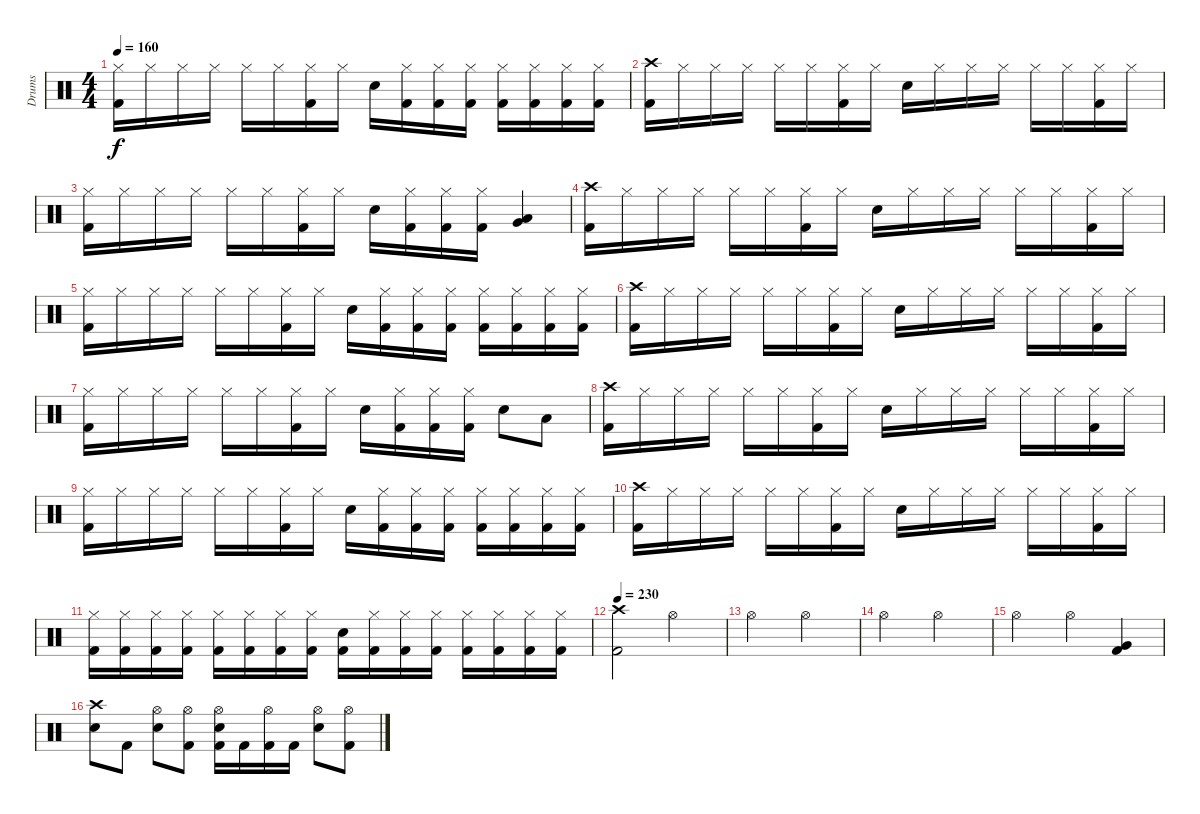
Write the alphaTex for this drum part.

\track ("Drums" "Drums") {instrument percussion}
\staff {score}
\articulation defaults
\ts (4 4)
\tempo 160
\clef neutral
\ks c
("Hi-Hat (closed)" "Kick (hit) 2").16{dy f} "Hi-Hat (closed)".16 "Hi-Hat (closed)".16 "Hi-Hat (closed)".16 "Hi-Hat (closed)".16 "Hi-Hat (closed)".16 ("Hi-Hat (closed)" "Kick (hit) 2").16 "Hi-Hat (closed)".16 "Electric Snare (hit)".16 ("Hi-Hat (closed)" "Kick (hit) 2").16 ("Hi-Hat (closed)" "Kick (hit) 2").16 ("Hi-Hat (closed)" "Kick (hit) 2").16 ("Hi-Hat (closed)" "Kick (hit) 2").16 ("Hi-Hat (closed)" "Kick (hit) 2").16 ("Hi-Hat (closed)" "Kick (hit) 2").16 ("Hi-Hat (closed)" "Kick (hit) 2").16 |
("Crash high (hit)" "Kick (hit) 2").16 "Hi-Hat (closed)".16 "Hi-Hat (closed)".16 "Hi-Hat (closed)".16 "Hi-Hat (closed)".16 "Hi-Hat (closed)".16 ("Hi-Hat (closed)" "Kick (hit) 2").16 "Hi-Hat (closed)".16 "Electric Snare (hit)".16 "Hi-Hat (closed)".16 "Hi-Hat (closed)".16 "Hi-Hat (closed)".16 "Hi-Hat (closed)".16 "Hi-Hat (closed)".16 ("Hi-Hat (closed)" "Kick (hit) 2").16 "Hi-Hat (closed)".16 |
("Hi-Hat (closed)" "Kick (hit) 2").16 "Hi-Hat (closed)".16 "Hi-Hat (closed)".16 "Hi-Hat (closed)".16 "Hi-Hat (closed)".16 "Hi-Hat (closed)".16 ("Hi-Hat (closed)" "Kick (hit) 2").16 "Hi-Hat (closed)".16 "Electric Snare (hit)".16 ("Hi-Hat (closed)" "Kick (hit) 2").16 ("Hi-Hat (closed)" "Kick (hit) 2").16 ("Hi-Hat (closed)" "Kick (hit) 2").16 ("Low Tom (hit)" "Very Low Tom (hit)").4 |
("Crash high (hit)" "Kick (hit) 2").16 "Hi-Hat (closed)".16 "Hi-Hat (closed)".16 "Hi-Hat (closed)".16 "Hi-Hat (closed)".16 "Hi-Hat (closed)".16 ("Hi-Hat (closed)" "Kick (hit) 2").16 "Hi-Hat (closed)".16 "Electric Snare (hit)".16 "Hi-Hat (closed)".16 "Hi-Hat (closed)".16 "Hi-Hat (closed)".16 "Hi-Hat (closed)".16 "Hi-Hat (closed)".16 ("Hi-Hat (closed)" "Kick (hit) 2").16 "Hi-Hat (closed)".16 |
("Hi-Hat (closed)" "Kick (hit) 2").16 "Hi-Hat (closed)".16 "Hi-Hat (closed)".16 "Hi-Hat (closed)".16 "Hi-Hat (closed)".16 "Hi-Hat (closed)".16 ("Hi-Hat (closed)" "Kick (hit) 2").16 "Hi-Hat (closed)".16 "Electric Snare (hit)".16 ("Hi-Hat (closed)" "Kick (hit) 2").16 ("Hi-Hat (closed)" "Kick (hit) 2").16 ("Hi-Hat (closed)" "Kick (hit) 2").16 ("Hi-Hat (closed)" "Kick (hit) 2").16 ("Hi-Hat (closed)" "Kick (hit) 2").16 ("Hi-Hat (closed)" "Kick (hit) 2").16 ("Hi-Hat (closed)" "Kick (hit) 2").16 |
("Crash high (hit)" "Kick (hit) 2").16 "Hi-Hat (closed)".16 "Hi-Hat (closed)".16 "Hi-Hat (closed)".16 "Hi-Hat (closed)".16 "Hi-Hat (closed)".16 ("Hi-Hat (closed)" "Kick (hit) 2").16 "Hi-Hat (closed)".16 "Electric Snare (hit)".16 "Hi-Hat (closed)".16 "Hi-Hat (closed)".16 "Hi-Hat (closed)".16 "Hi-Hat (closed)".16 "Hi-Hat (closed)".16 ("Hi-Hat (closed)" "Kick (hit) 2").16 "Hi-Hat (closed)".16 |
("Hi-Hat (closed)" "Kick (hit) 2").16 "Hi-Hat (closed)".16 "Hi-Hat (closed)".16 "Hi-Hat (closed)".16 "Hi-Hat (closed)".16 "Hi-Hat (closed)".16 ("Hi-Hat (closed)" "Kick (hit) 2").16 "Hi-Hat (closed)".16 "Electric Snare (hit)".16 ("Hi-Hat (closed)" "Kick (hit) 2").16 ("Hi-Hat (closed)" "Kick (hit) 2").16 ("Hi-Hat (closed)" "Kick (hit) 2").16 "Electric Snare (hit)".8 "Low Tom (hit)".8 |
("Crash high (hit)" "Kick (hit) 2").16 "Hi-Hat (closed)".16 "Hi-Hat (closed)".16 "Hi-Hat (closed)".16 "Hi-Hat (closed)".16 "Hi-Hat (closed)".16 ("Hi-Hat (closed)" "Kick (hit) 2").16 "Hi-Hat (closed)".16 "Electric Snare (hit)".16 "Hi-Hat (closed)".16 "Hi-Hat (closed)".16 "Hi-Hat (closed)".16 "Hi-Hat (closed)".16 "Hi-Hat (closed)".16 ("Hi-Hat (closed)" "Kick (hit) 2").16 "Hi-Hat (closed)".16 |
("Hi-Hat (closed)" "Kick (hit) 2").16 "Hi-Hat (closed)".16 "Hi-Hat (closed)".16 "Hi-Hat (closed)".16 "Hi-Hat (closed)".16 "Hi-Hat (closed)".16 ("Hi-Hat (closed)" "Kick (hit) 2").16 "Hi-Hat (closed)".16 "Electric Snare (hit)".16 ("Hi-Hat (closed)" "Kick (hit) 2").16 ("Hi-Hat (closed)" "Kick (hit) 2").16 ("Hi-Hat (closed)" "Kick (hit) 2").16 ("Hi-Hat (closed)" "Kick (hit) 2").16 ("Hi-Hat (closed)" "Kick (hit) 2").16 ("Hi-Hat (closed)" "Kick (hit) 2").16 ("Hi-Hat (closed)" "Kick (hit) 2").16 |
("Crash high (hit)" "Kick (hit) 2").16 "Hi-Hat (closed)".16 "Hi-Hat (closed)".16 "Hi-Hat (closed)".16 "Hi-Hat (closed)".16 "Hi-Hat (closed)".16 ("Hi-Hat (closed)" "Kick (hit) 2").16 "Hi-Hat (closed)".16 "Electric Snare (hit)".16 "Hi-Hat (closed)".16 "Hi-Hat (closed)".16 "Hi-Hat (closed)".16 "Hi-Hat (closed)".16 "Hi-Hat (closed)".16 ("Hi-Hat (closed)" "Kick (hit) 2").16 "Hi-Hat (closed)".16 |
("Hi-Hat (closed)" "Kick (hit) 2").16 ("Hi-Hat (closed)" "Kick (hit) 2").16 ("Hi-Hat (closed)" "Kick (hit) 2").16 ("Hi-Hat (closed)" "Kick (hit) 2").16 ("Hi-Hat (closed)" "Kick (hit) 2").16 ("Hi-Hat (closed)" "Kick (hit) 2").16 ("Hi-Hat (closed)" "Kick (hit) 2").16 ("Hi-Hat (closed)" "Kick (hit) 2").16 ("Electric Snare (hit)" "Kick (hit) 2").16 ("Hi-Hat (closed)" "Kick (hit) 2").16 ("Hi-Hat (closed)" "Kick (hit) 2").16 ("Hi-Hat (closed)" "Kick (hit) 2").16 ("Hi-Hat (closed)" "Kick (hit) 2").16 ("Hi-Hat (closed)" "Kick (hit) 2").16 ("Hi-Hat (closed)" "Kick (hit) 2").16 ("Hi-Hat (closed)" "Kick (hit) 2").16 |
\tempo 230
("Crash high (hit)" "Kick (hit) 2").2 "Hi-Hat (open)".2 |
"Hi-Hat (open)".2 "Hi-Hat (open)".2 |
"Hi-Hat (open)".2 "Hi-Hat (open)".2 |
"Hi-Hat (open)".2 "Hi-Hat (open)".4 ("Very Low Tom (hit)" "Kick (hit) 2").4 |
("Crash high (hit)" "Electric Snare (hit)").8 "Kick (hit) 2".8 ("Hi-Hat (open)" "Electric Snare (hit)").8 ("Hi-Hat (open)" "Kick (hit) 2").8 ("Hi-Hat (open)" "Electric Snare (hit)" "Kick (hit) 2").16 "Kick (hit) 2".16 ("Hi-Hat (open)" "Kick (hit) 2").16 "Kick (hit) 2".16 ("Hi-Hat (open)" "Electric Snare (hit)").8 ("Hi-Hat (open)" "Kick (hit) 2").8
